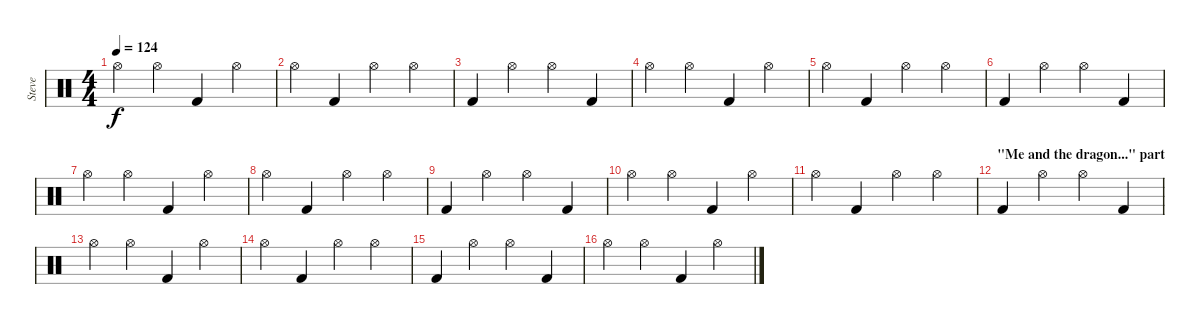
\track ("Steve" "Steve") {instrument percussion}
\staff {score}
\articulation defaults
\ts (4 4)
\tempo 124
\clef neutral
\ks c "Hi-Hat (open)".4{dy f} "Hi-Hat (open)".4 "Kick (hit) 2".4 "Hi-Hat (open)".4
|
"Hi-Hat (open)".4 "Kick (hit) 2".4 "Hi-Hat (open)".4 "Hi-Hat (open)".4 |
"Kick (hit) 2".4 "Hi-Hat (open)".4 "Hi-Hat (open)".4 "Kick (hit) 2".4 |
"Hi-Hat (open)".4 "Hi-Hat (open)".4 "Kick (hit) 2".4 "Hi-Hat (open)".4 |
"Hi-Hat (open)".4 "Kick (hit) 2".4 "Hi-Hat (open)".4 "Hi-Hat (open)".4 |
"Kick (hit) 2".4 "Hi-Hat (open)".4 "Hi-Hat (open)".4 "Kick (hit) 2".4 |
"Hi-Hat (open)".4 "Hi-Hat (open)".4 "Kick (hit) 2".4 "Hi-Hat (open)".4 |
"Hi-Hat (open)".4 "Kick (hit) 2".4 "Hi-Hat (open)".4 "Hi-Hat (open)".4 |
"Kick (hit) 2".4 "Hi-Hat (open)".4 "Hi-Hat (open)".4 "Kick (hit) 2".4 |
"Hi-Hat (open)".4 "Hi-Hat (open)".4 "Kick (hit) 2".4 "Hi-Hat (open)".4 |
"Hi-Hat (open)".4 "Kick (hit) 2".4 "Hi-Hat (open)".4 "Hi-Hat (open)".4 |
\section ("" "\"Me and the dragon...\" part")
"Kick (hit) 2".4 "Hi-Hat (open)".4 "Hi-Hat (open)".4 "Kick (hit) 2".4 |
"Hi-Hat (open)".4 "Hi-Hat (open)".4 "Kick (hit) 2".4 "Hi-Hat (open)".4 |
"Hi-Hat (open)".4 "Kick (hit) 2".4 "Hi-Hat (open)".4 "Hi-Hat (open)".4 |
"Kick (hit) 2".4 "Hi-Hat (open)".4 "Hi-Hat (open)".4 "Kick (hit) 2".4 |
"Hi-Hat (open)".4 "Hi-Hat (open)".4 "Kick (hit) 2".4 "Hi-Hat (open)".4
